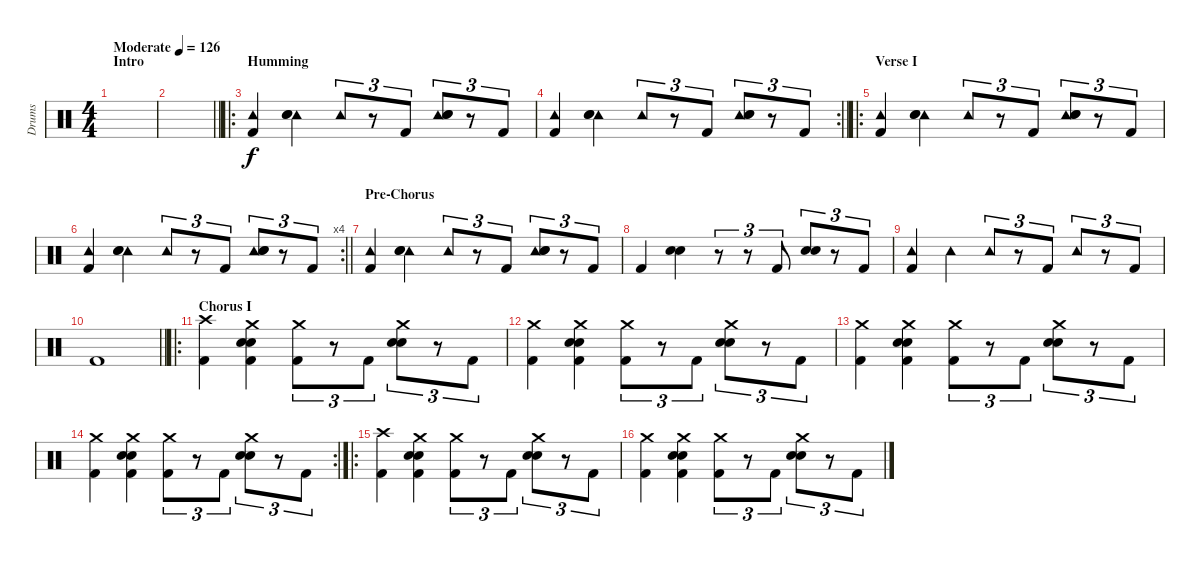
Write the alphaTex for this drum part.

\track ("Drums" "Drums") {instrument percussion}
\staff {score}
\articulation defaults
\ts (4 4)
\section ("" "Intro")
\tempo (126 "Moderate")
\clef neutral
\ks c
|
\barLineRight lightlight
|
\ro
\section ("" "Humming")
("Tambourine (hit)" "Kick (hit) 2").4 ("Tambourine (hit)" "Electric Snare (hit)" "Hand Clap (hit)").4 "Tambourine (hit)".8{tu (3 2)} r.8{tu (3 2)} "Kick (hit) 2".8{tu (3 2)} ("Tambourine (hit)" "Electric Snare (hit)" "Hand Clap (hit)").8{tu (3 2)} r.8{tu (3 2)} "Kick (hit) 2".8{tu (3 2)} |
\rc 2
\barLineRight lightlight
("Tambourine (hit)" "Kick (hit) 2").4 ("Tambourine (hit)" "Electric Snare (hit)" "Hand Clap (hit)").4 "Tambourine (hit)".8{tu (3 2)} r.8{tu (3 2)} "Kick (hit) 2".8{tu (3 2)} ("Tambourine (hit)" "Electric Snare (hit)" "Hand Clap (hit)").8{tu (3 2)} r.8{tu (3 2)} "Kick (hit) 2".8{tu (3 2)} |
\ro
\section ("" "Verse I")
("Tambourine (hit)" "Kick (hit) 2").4 ("Tambourine (hit)" "Electric Snare (hit)" "Hand Clap (hit)").4 "Tambourine (hit)".8{tu (3 2)} r.8{tu (3 2)} "Kick (hit) 2".8{tu (3 2)} ("Tambourine (hit)" "Electric Snare (hit)" "Hand Clap (hit)").8{tu (3 2)} r.8{tu (3 2)} "Kick (hit) 2".8{tu (3 2)} |
\rc 4
\barLineRight lightlight
("Tambourine (hit)" "Kick (hit) 2").4 ("Tambourine (hit)" "Electric Snare (hit)" "Hand Clap (hit)").4 "Tambourine (hit)".8{tu (3 2)} r.8{tu (3 2)} "Kick (hit) 2".8{tu (3 2)} ("Tambourine (hit)" "Electric Snare (hit)" "Hand Clap (hit)").8{tu (3 2)} r.8{tu (3 2)} "Kick (hit) 2".8{tu (3 2)} |
\section ("" "Pre-Chorus")
("Tambourine (hit)" "Kick (hit) 2").4 ("Tambourine (hit)" "Electric Snare (hit)" "Hand Clap (hit)").4 "Tambourine (hit)".8{tu (3 2)} r.8{tu (3 2)} "Kick (hit) 2".8{tu (3 2)} ("Tambourine (hit)" "Electric Snare (hit)" "Hand Clap (hit)").8{tu (3 2)} r.8{tu (3 2)} "Kick (hit) 2".8{tu (3 2)} |
"Kick (hit) 2".4 ("Electric Snare (hit)" "Hand Clap (hit)").4 r.8{tu (3 2)} r.8{tu (3 2)} "Kick (hit) 2".8{tu (3 2)} ("Electric Snare (hit)" "Hand Clap (hit)").8{tu (3 2)} r.8{tu (3 2)} "Kick (hit) 2".8{tu (3 2)} |
("Tambourine (hit)" "Kick (hit) 2").4 "Tambourine (hit)".4 "Tambourine (hit)".8{tu (3 2)} r.8{tu (3 2)} "Kick (hit) 2".8{tu (3 2)} "Tambourine (hit)".8{tu (3 2)} r.8{tu (3 2)} "Kick (hit) 2".8{tu (3 2)} |
\barLineRight lightlight "Kick (hit) 2".1
|
\ro
\section ("" "Chorus I")
("Crash high (hit)" "Kick (hit) 2").4 ("Crash medium (hit)" "Electric Snare (hit)" "Hand Clap (hit)" "Kick (hit) 2").4 ("Crash medium (hit)" "Kick (hit) 2").8{tu (3 2)} r.8{tu (3 2)} "Kick (hit) 2".8{tu (3 2)} ("Crash medium (hit)" "Electric Snare (hit)" "Hand Clap (hit)").8{tu (3 2)} r.8{tu (3 2)} "Kick (hit) 2".8{tu (3 2)} |
("Crash medium (hit)" "Kick (hit) 2").4 ("Crash medium (hit)" "Electric Snare (hit)" "Hand Clap (hit)" "Kick (hit) 2").4 ("Crash medium (hit)" "Kick (hit) 2").8{tu (3 2)} r.8{tu (3 2)} "Kick (hit) 2".8{tu (3 2)} ("Crash medium (hit)" "Electric Snare (hit)" "Hand Clap (hit)").8{tu (3 2)} r.8{tu (3 2)} "Kick (hit) 2".8{tu (3 2)} |
("Crash medium (hit)" "Kick (hit) 2").4 ("Crash medium (hit)" "Electric Snare (hit)" "Hand Clap (hit)" "Kick (hit) 2").4 ("Crash medium (hit)" "Kick (hit) 2").8{tu (3 2)} r.8{tu (3 2)} "Kick (hit) 2".8{tu (3 2)} ("Crash medium (hit)" "Electric Snare (hit)" "Hand Clap (hit)").8{tu (3 2)} r.8{tu (3 2)} "Kick (hit) 2".8{tu (3 2)} |
\rc 2
("Crash medium (hit)" "Kick (hit) 2").4 ("Crash medium (hit)" "Electric Snare (hit)" "Hand Clap (hit)" "Kick (hit) 2").4 ("Crash medium (hit)" "Kick (hit) 2").8{tu (3 2)} r.8{tu (3 2)} "Kick (hit) 2".8{tu (3 2)} ("Crash medium (hit)" "Electric Snare (hit)" "Hand Clap (hit)").8{tu (3 2)} r.8{tu (3 2)} "Kick (hit) 2".8{tu (3 2)} |
\ro
("Crash high (hit)" "Kick (hit) 2").4 ("Crash medium (hit)" "Electric Snare (hit)" "Hand Clap (hit)" "Kick (hit) 2").4 ("Crash medium (hit)" "Kick (hit) 2").8{tu (3 2)} r.8{tu (3 2)} "Kick (hit) 2".8{tu (3 2)} ("Crash medium (hit)" "Electric Snare (hit)" "Hand Clap (hit)").8{tu (3 2)} r.8{tu (3 2)} "Kick (hit) 2".8{tu (3 2)} |
("Crash medium (hit)" "Kick (hit) 2").4 ("Crash medium (hit)" "Electric Snare (hit)" "Hand Clap (hit)" "Kick (hit) 2").4 ("Crash medium (hit)" "Kick (hit) 2").8{tu (3 2)} r.8{tu (3 2)} "Kick (hit) 2".8{tu (3 2)} ("Crash medium (hit)" "Electric Snare (hit)" "Hand Clap (hit)").8{tu (3 2)} r.8{tu (3 2)} "Kick (hit) 2".8{tu (3 2)}
